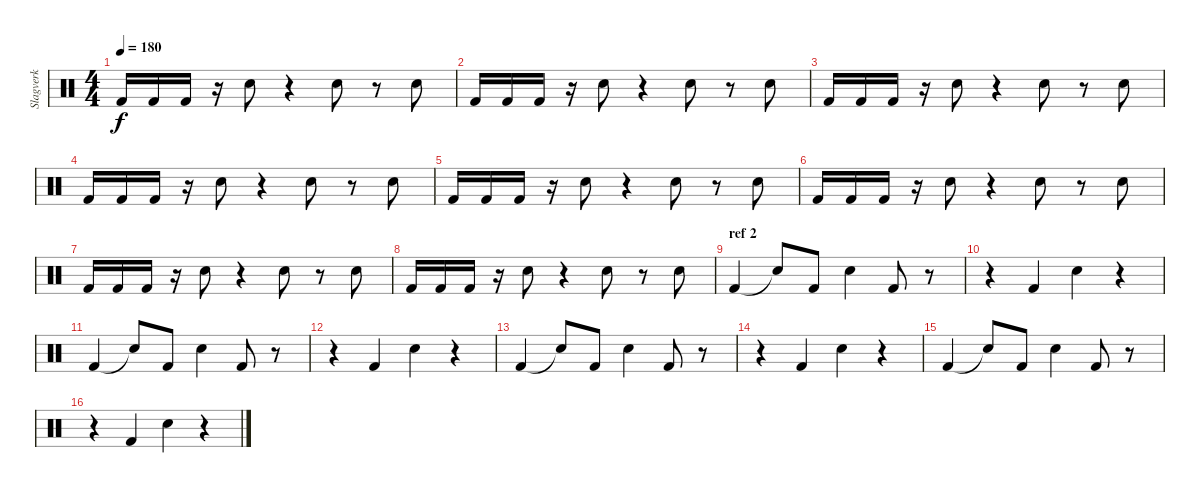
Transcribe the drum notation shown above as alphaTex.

\track ("Slagverk" "Slagverk") {instrument percussion}
\staff {score}
\articulation defaults
\ts (4 4)
\tempo 180
\clef neutral
\ks c "Kick (hit) 2".16{dy f} "Kick (hit) 2".16 "Kick (hit) 2".16
r.16 "Electric Snare (hit)".8 r.4 "Electric Snare (hit)".8 r.8 "Electric Snare (hit)".8 |
"Kick (hit) 2".16 "Kick (hit) 2".16 "Kick (hit) 2".16 r.16 "Electric Snare (hit)".8 r.4 "Electric Snare (hit)".8 r.8 "Electric Snare (hit)".8 |
"Kick (hit) 2".16 "Kick (hit) 2".16 "Kick (hit) 2".16 r.16 "Electric Snare (hit)".8 r.4 "Electric Snare (hit)".8 r.8 "Electric Snare (hit)".8 |
"Kick (hit) 2".16 "Kick (hit) 2".16 "Kick (hit) 2".16 r.16 "Electric Snare (hit)".8 r.4 "Electric Snare (hit)".8 r.8 "Electric Snare (hit)".8 |
"Kick (hit) 2".16 "Kick (hit) 2".16 "Kick (hit) 2".16 r.16 "Electric Snare (hit)".8 r.4 "Electric Snare (hit)".8 r.8 "Electric Snare (hit)".8 |
"Kick (hit) 2".16 "Kick (hit) 2".16 "Kick (hit) 2".16 r.16 "Electric Snare (hit)".8 r.4 "Electric Snare (hit)".8 r.8 "Electric Snare (hit)".8 |
"Kick (hit) 2".16 "Kick (hit) 2".16 "Kick (hit) 2".16 r.16 "Electric Snare (hit)".8 r.4 "Electric Snare (hit)".8 r.8 "Electric Snare (hit)".8 |
"Kick (hit) 2".16 "Kick (hit) 2".16 "Kick (hit) 2".16 r.16 "Electric Snare (hit)".8 r.4 "Electric Snare (hit)".8 r.8 "Electric Snare (hit)".8 |
\section ("" "ref 2")
"Kick (hit) 2".4 "Snare (hit)"{t}.8 "Kick (hit) 2".8 "Electric Snare (hit)".4 "Kick (hit) 2".8 r.8 |
r.4 "Kick (hit) 2".4 "Electric Snare (hit)".4 r.4 |
"Kick (hit) 2".4 "Snare (hit)"{t}.8 "Kick (hit) 2".8 "Electric Snare (hit)".4 "Kick (hit) 2".8 r.8 |
r.4 "Kick (hit) 2".4 "Electric Snare (hit)".4 r.4 |
"Kick (hit) 2".4 "Snare (hit)"{t}.8 "Kick (hit) 2".8 "Electric Snare (hit)".4 "Kick (hit) 2".8 r.8 |
r.4 "Kick (hit) 2".4 "Electric Snare (hit)".4 r.4 |
"Kick (hit) 2".4 "Snare (hit)"{t}.8 "Kick (hit) 2".8 "Electric Snare (hit)".4 "Kick (hit) 2".8 r.8 |
r.4 "Kick (hit) 2".4 "Electric Snare (hit)".4 r.4
